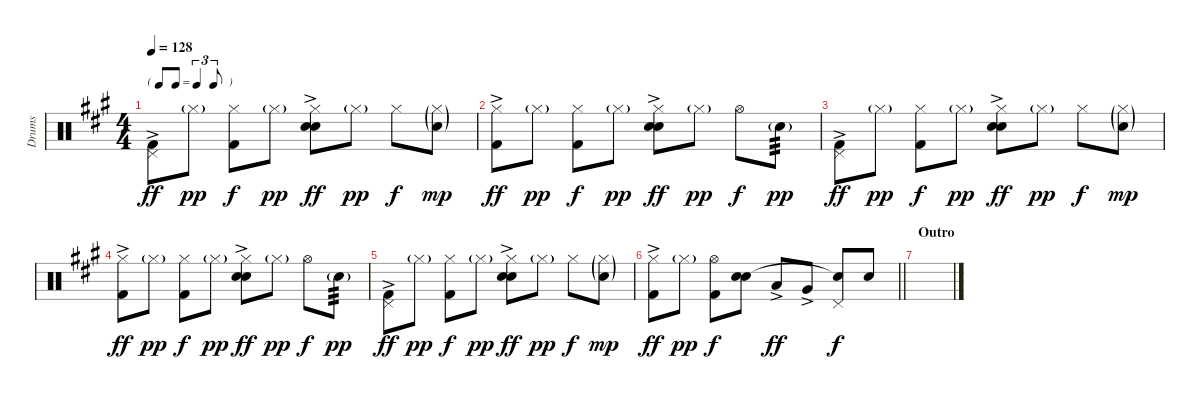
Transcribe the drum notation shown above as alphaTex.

\track ("Drums" "Drums") {instrument percussion}
\staff {score}
\articulation defaults
\ts (4 4)
\tf triplet8th
\tempo 128
\clef neutral
\ks a
("Pedal Hi-Hat (hit)" "Kick (hit) 2"{ac}).8{dy ff} "Hi-Hat (closed)"{g}.8{dy pp} ("Hi-Hat (closed)" "Kick (hit) 2").8{dy f} "Hi-Hat (closed)"{g}.8{dy pp} ("Hi-Hat (closed)" "Electric Snare (hit)"{ac} "Snare (hit) 2").8{dy ff} "Hi-Hat (closed)"{g}.8{dy pp} "Hi-Hat (closed)".8{dy f} ("Hi-Hat (closed)"{g} "Snare (hit) 2"{g}).8{dy mp} |
("Hi-Hat (closed)" "Kick (hit) 2"{ac}).8{dy ff} "Hi-Hat (closed)"{g}.8{dy pp} ("Hi-Hat (closed)" "Kick (hit) 2").8{dy f} "Hi-Hat (closed)"{g}.8{dy pp} ("Hi-Hat (closed)" "Electric Snare (hit)"{ac} "Snare (hit) 2").8{dy ff} "Hi-Hat (closed)"{g}.8{dy pp} "Hi-Hat (open)".8{dy f} "Snare (hit) 2"{g}.8{tp 3 dy pp} |
("Pedal Hi-Hat (hit)" "Kick (hit) 2"{ac}).8{dy ff} "Hi-Hat (closed)"{g}.8{dy pp} ("Hi-Hat (closed)" "Kick (hit) 2").8{dy f} "Hi-Hat (closed)"{g}.8{dy pp} ("Hi-Hat (closed)" "Electric Snare (hit)"{ac} "Snare (hit) 2").8{dy ff} "Hi-Hat (closed)"{g}.8{dy pp} "Hi-Hat (closed)".8{dy f} ("Hi-Hat (closed)"{g} "Snare (hit) 2"{g}).8{dy mp} |
("Hi-Hat (closed)" "Kick (hit) 2"{ac}).8{dy ff} "Hi-Hat (closed)"{g}.8{dy pp} ("Hi-Hat (closed)" "Kick (hit) 2").8{dy f} "Hi-Hat (closed)"{g}.8{dy pp} ("Hi-Hat (closed)" "Electric Snare (hit)"{ac} "Snare (hit) 2").8{dy ff} "Hi-Hat (closed)"{g}.8{dy pp} "Hi-Hat (open)".8{dy f} "Snare (hit) 2"{g}.8{tp 3 dy pp} |
("Pedal Hi-Hat (hit)" "Kick (hit) 2"{ac}).8{dy ff} "Hi-Hat (closed)"{g}.8{dy pp} ("Hi-Hat (closed)" "Kick (hit) 2").8{dy f} "Hi-Hat (closed)"{g}.8{dy pp} ("Hi-Hat (closed)" "Electric Snare (hit)"{ac} "Snare (hit) 2").8{dy ff} "Hi-Hat (closed)"{g}.8{dy pp} "Hi-Hat (closed)".8{dy f} ("Hi-Hat (closed)"{g} "Snare (hit) 2"{g}).8{dy mp} |
\barLineRight lightlight
("Hi-Hat (closed)" "Kick (hit) 2"{ac}).8{dy ff} "Hi-Hat (closed)"{g}.8{dy pp} ("Hi-Hat (open)" "Kick (hit) 2").8{dy f} ("Electric Snare (hit)" "Snare (hit) 2").8 "Low Tom (hit)"{ac}.8{dy ff} "Very Low Tom (hit)"{ac}.8 ("Pedal Hi-Hat (hit)" "Snare (hit)"{t}).8{dy f} "Snare (hit) 2".8 |
\section ("" "Outro")
